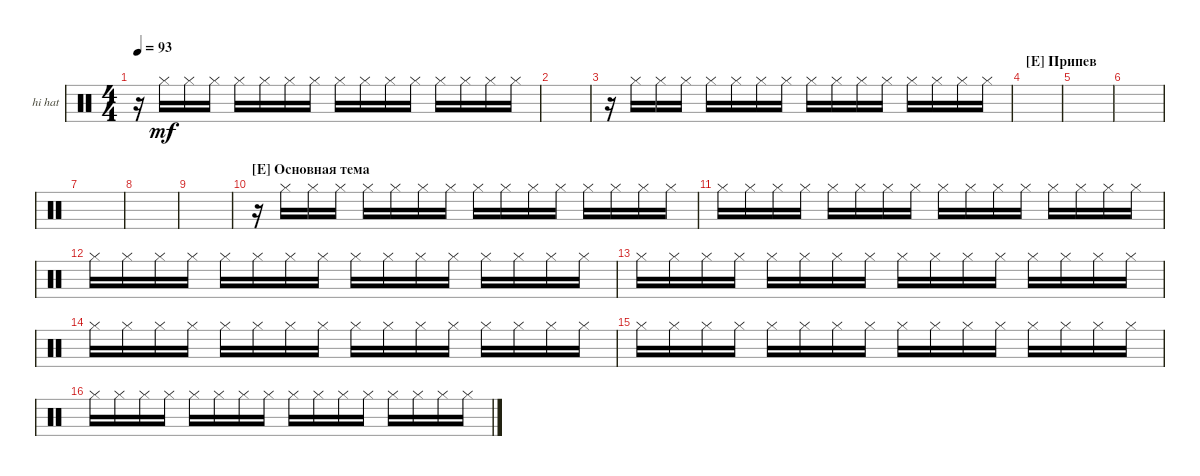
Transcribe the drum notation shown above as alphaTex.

\bracketExtendMode groupsimilarinstruments
\firstSystemTrackNameOrientation horizontal
\otherSystemsTrackNameOrientation horizontal
\track ("hi hat" "hi hat") {instrument percussion}
\staff {score}
\articulation defaults
\ts (4 4)
\tempo 93
\clef neutral
\scale
0.333333
\ks c
r.16{dy mf} "Hi-Hat (closed)".16 "Hi-Hat (closed)".16 "Hi-Hat (closed)".16 "Hi-Hat (closed)".16 "Hi-Hat (closed)".16 "Hi-Hat (closed)".16 "Hi-Hat (closed)".16 "Hi-Hat (closed)".16 "Hi-Hat (closed)".16 "Hi-Hat (closed)".16 "Hi-Hat (closed)".16 "Hi-Hat (closed)".16 "Hi-Hat (closed)".16 "Hi-Hat (closed)".16 "Hi-Hat (closed)".16 |
\scale
0.333333 |
\scale
0.333333 r.16 "Hi-Hat (closed)".16 "Hi-Hat (closed)".16 "Hi-Hat (closed)".16 "Hi-Hat (closed)".16 "Hi-Hat (closed)".16 "Hi-Hat (closed)".16 "Hi-Hat (closed)".16 "Hi-Hat (closed)".16 "Hi-Hat (closed)".16 "Hi-Hat (closed)".16 "Hi-Hat (closed)".16 "Hi-Hat (closed)".16 "Hi-Hat (closed)".16 "Hi-Hat (closed)".16 "Hi-Hat (closed)".16 |
\section ("E" "Припев")
\scale
0.333333 |
\scale
0.333333 |
\scale
0.333333 |
\scale
0.333333 |
\scale
0.333333 |
\scale
0.333333 |
\section ("E" "Основная тема")
\scale
0.333333 r.16 "Hi-Hat (closed)".16 "Hi-Hat (closed)".16 "Hi-Hat (closed)".16 "Hi-Hat (closed)".16 "Hi-Hat (closed)".16 "Hi-Hat (closed)".16 "Hi-Hat (closed)".16 "Hi-Hat (closed)".16 "Hi-Hat (closed)".16 "Hi-Hat (closed)".16 "Hi-Hat (closed)".16 "Hi-Hat (closed)".16 "Hi-Hat (closed)".16 "Hi-Hat (closed)".16 "Hi-Hat (closed)".16 |
\scale
0.333333 "Hi-Hat (closed)".16 "Hi-Hat (closed)".16 "Hi-Hat (closed)".16 "Hi-Hat (closed)".16 "Hi-Hat (closed)".16 "Hi-Hat (closed)".16 "Hi-Hat (closed)".16 "Hi-Hat (closed)".16 "Hi-Hat (closed)".16 "Hi-Hat (closed)".16 "Hi-Hat (closed)".16 "Hi-Hat (closed)".16 "Hi-Hat (closed)".16 "Hi-Hat (closed)".16 "Hi-Hat (closed)".16 "Hi-Hat (closed)".16 |
\scale
0.333333 "Hi-Hat (closed)".16 "Hi-Hat (closed)".16 "Hi-Hat (closed)".16 "Hi-Hat (closed)".16 "Hi-Hat (closed)".16 "Hi-Hat (closed)".16 "Hi-Hat (closed)".16 "Hi-Hat (closed)".16 "Hi-Hat (closed)".16 "Hi-Hat (closed)".16 "Hi-Hat (closed)".16 "Hi-Hat (closed)".16 "Hi-Hat (closed)".16 "Hi-Hat (closed)".16 "Hi-Hat (closed)".16 "Hi-Hat (closed)".16 |
\scale
0.333333 "Hi-Hat (closed)".16 "Hi-Hat (closed)".16 "Hi-Hat (closed)".16 "Hi-Hat (closed)".16 "Hi-Hat (closed)".16 "Hi-Hat (closed)".16 "Hi-Hat (closed)".16 "Hi-Hat (closed)".16 "Hi-Hat (closed)".16 "Hi-Hat (closed)".16 "Hi-Hat (closed)".16 "Hi-Hat (closed)".16 "Hi-Hat (closed)".16 "Hi-Hat (closed)".16 "Hi-Hat (closed)".16 "Hi-Hat (closed)".16 |
\scale
0.333333 "Hi-Hat (closed)".16 "Hi-Hat (closed)".16 "Hi-Hat (closed)".16 "Hi-Hat (closed)".16 "Hi-Hat (closed)".16 "Hi-Hat (closed)".16 "Hi-Hat (closed)".16 "Hi-Hat (closed)".16 "Hi-Hat (closed)".16 "Hi-Hat (closed)".16 "Hi-Hat (closed)".16 "Hi-Hat (closed)".16 "Hi-Hat (closed)".16 "Hi-Hat (closed)".16 "Hi-Hat (closed)".16 "Hi-Hat (closed)".16 |
\scale
0.333333 "Hi-Hat (closed)".16 "Hi-Hat (closed)".16 "Hi-Hat (closed)".16 "Hi-Hat (closed)".16 "Hi-Hat (closed)".16 "Hi-Hat (closed)".16 "Hi-Hat (closed)".16 "Hi-Hat (closed)".16 "Hi-Hat (closed)".16 "Hi-Hat (closed)".16 "Hi-Hat (closed)".16 "Hi-Hat (closed)".16 "Hi-Hat (closed)".16 "Hi-Hat (closed)".16 "Hi-Hat (closed)".16 "Hi-Hat (closed)".16 |
\scale
0.333333 "Hi-Hat (closed)".16 "Hi-Hat (closed)".16 "Hi-Hat (closed)".16 "Hi-Hat (closed)".16 "Hi-Hat (closed)".16 "Hi-Hat (closed)".16 "Hi-Hat (closed)".16 "Hi-Hat (closed)".16 "Hi-Hat (closed)".16 "Hi-Hat (closed)".16 "Hi-Hat (closed)".16 "Hi-Hat (closed)".16 "Hi-Hat (closed)".16 "Hi-Hat (closed)".16 "Hi-Hat (closed)".16 "Hi-Hat (closed)".16
